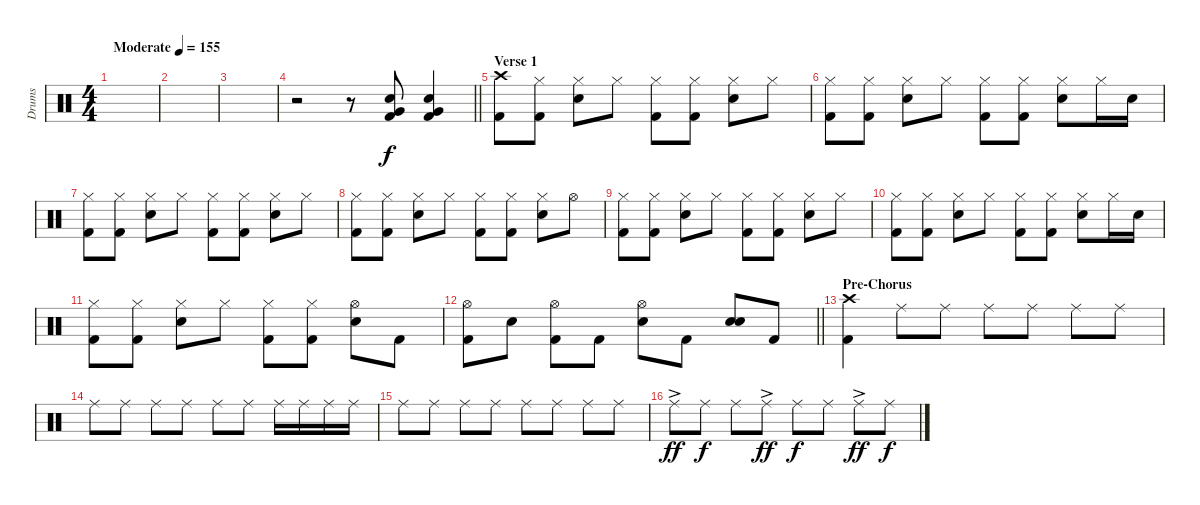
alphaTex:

\track ("Drums" "Drums") {instrument percussion}
\staff {score}
\articulation defaults
\ts (4 4)
\tempo (155 "Moderate")
\clef neutral
\ks c
|
|
|
\barLineRight lightlight
r.2 r.8 ("Kick (hit) 2" "Very Low Tom (hit)" "Electric Snare (hit)").8 ("Kick (hit) 2" "Very Low Tom (hit)" "Electric Snare (hit)").4 |
\section ("" "Verse 1")
("Kick (hit) 2" "Crash high (hit)").8 ("Kick (hit) 2" "Hi-Hat (closed)").8 ("Electric Snare (hit)" "Hi-Hat (closed)").8 "Hi-Hat (closed)".8 ("Kick (hit) 2" "Hi-Hat (closed)").8 ("Kick (hit) 2" "Hi-Hat (closed)").8 ("Electric Snare (hit)" "Hi-Hat (closed)").8 "Hi-Hat (closed)".8 |
("Kick (hit) 2" "Hi-Hat (closed)").8 ("Kick (hit) 2" "Hi-Hat (closed)").8 ("Electric Snare (hit)" "Hi-Hat (closed)").8 "Hi-Hat (closed)".8 ("Kick (hit) 2" "Hi-Hat (closed)").8 ("Kick (hit) 2" "Hi-Hat (closed)").8 ("Electric Snare (hit)" "Hi-Hat (closed)").8 "Hi-Hat (closed)".16 "Electric Snare (hit)".16 |
("Kick (hit) 2" "Hi-Hat (closed)").8 ("Kick (hit) 2" "Hi-Hat (closed)").8 ("Electric Snare (hit)" "Hi-Hat (closed)").8 "Hi-Hat (closed)".8 ("Kick (hit) 2" "Hi-Hat (closed)").8 ("Kick (hit) 2" "Hi-Hat (closed)").8 ("Electric Snare (hit)" "Hi-Hat (closed)").8 "Hi-Hat (closed)".8 |
("Kick (hit) 2" "Hi-Hat (closed)").8 ("Kick (hit) 2" "Hi-Hat (closed)").8 ("Electric Snare (hit)" "Hi-Hat (closed)").8 "Hi-Hat (closed)".8 ("Kick (hit) 2" "Hi-Hat (closed)").8 ("Kick (hit) 2" "Hi-Hat (closed)").8 ("Electric Snare (hit)" "Hi-Hat (closed)").8 "Hi-Hat (open)".8 |
("Kick (hit) 2" "Hi-Hat (closed)").8 ("Kick (hit) 2" "Hi-Hat (closed)").8 ("Electric Snare (hit)" "Hi-Hat (closed)").8 "Hi-Hat (closed)".8 ("Kick (hit) 2" "Hi-Hat (closed)").8 ("Kick (hit) 2" "Hi-Hat (closed)").8 ("Electric Snare (hit)" "Hi-Hat (closed)").8 "Hi-Hat (closed)".8 |
("Kick (hit) 2" "Hi-Hat (closed)").8 ("Kick (hit) 2" "Hi-Hat (closed)").8 ("Electric Snare (hit)" "Hi-Hat (closed)").8 "Hi-Hat (closed)".8 ("Kick (hit) 2" "Hi-Hat (closed)").8 ("Kick (hit) 2" "Hi-Hat (closed)").8 ("Electric Snare (hit)" "Hi-Hat (closed)").8 "Hi-Hat (closed)".16 "Electric Snare (hit)".16 |
("Kick (hit) 2" "Hi-Hat (closed)").8 ("Kick (hit) 2" "Hi-Hat (closed)").8 ("Electric Snare (hit)" "Hi-Hat (closed)").8 "Hi-Hat (closed)".8 ("Kick (hit) 2" "Hi-Hat (closed)").8 ("Kick (hit) 2" "Hi-Hat (closed)").8 ("Electric Snare (hit)" "Hi-Hat (open)").8 "Kick (hit) 2".8 |
\barLineRight lightlight
("Kick (hit) 2" "Hi-Hat (open)").8 "Electric Snare (hit)".8 ("Kick (hit) 2" "Hi-Hat (open)").8 "Kick (hit) 2".8 ("Electric Snare (hit)" "Hi-Hat (open)").8 "Kick (hit) 2".8 ("Electric Snare (hit)" "Electric Snare (hit)").8 "Kick (hit) 2".8 |
\section ("" "Pre-Chorus")
("Kick (hit) 2" "Crash high (hit)").4 "Ride (middle)".8 "Ride (middle)".8 "Ride (middle)".8 "Ride (middle)".8 "Ride (middle)".8 "Ride (middle)".8 |
"Ride (middle)".8 "Ride (middle)".8 "Ride (middle)".8 "Ride (middle)".8 "Ride (middle)".8 "Ride (middle)".8 "Ride (middle)".16 "Ride (middle)".16 "Ride (middle)".16 "Ride (middle)".16 |
"Ride (middle)".8 "Ride (middle)".8 "Ride (middle)".8 "Ride (middle)".8 "Ride (middle)".8 "Ride (middle)".8 "Ride (middle)".8 "Ride (middle)".8 |
"Ride (middle)"{ac}.8{dy ff} "Ride (middle)".8{dy f} "Ride (middle)".8 "Ride (middle)"{ac}.8{dy ff} "Ride (middle)".8{dy f} "Ride (middle)".8 "Ride (middle)"{ac}.8{dy ff} "Ride (middle)".8{dy f}
